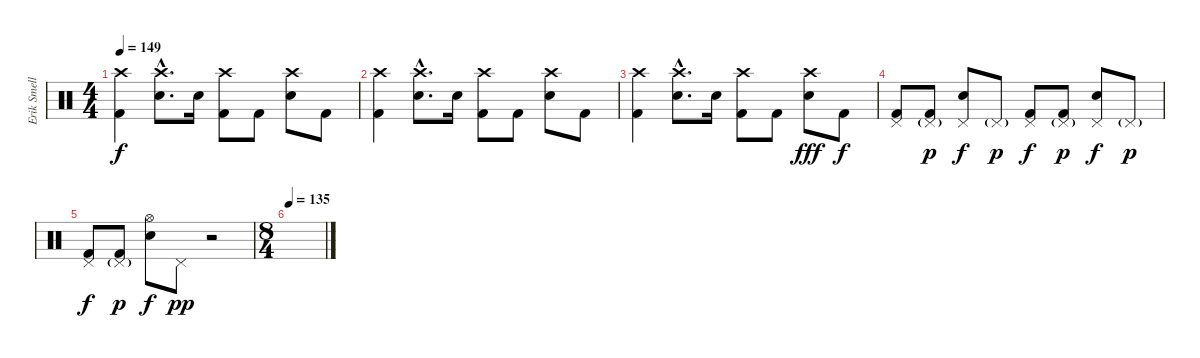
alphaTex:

\track ("Erik Smelly - Drums" "Erik Smell") {instrument percussion}
\staff {score}
\articulation defaults
\ts (4 4)
\tempo 149
\clef neutral
\ks c
("Crash high (hit)" "Kick (hit) 2").4{dy f} ("Crash high (hit)"{hac} "Electric Snare (hit)"{hac}).8{d} "Electric Snare (hit)".16 ("Crash high (hit)" "Kick (hit) 2").8 "Kick (hit) 2".8 ("Crash high (hit)" "Electric Snare (hit)").8 "Kick (hit) 2".8 |
("Crash high (hit)" "Kick (hit) 2").4 ("Crash high (hit)"{hac} "Electric Snare (hit)"{hac}).8{d} "Electric Snare (hit)".16 ("Crash high (hit)" "Kick (hit) 2").8 "Kick (hit) 2".8 ("Crash high (hit)" "Electric Snare (hit)").8 "Kick (hit) 2".8 |
("Crash high (hit)" "Kick (hit) 2").4 ("Crash high (hit)"{hac} "Electric Snare (hit)"{hac}).8{d} "Electric Snare (hit)".16 ("Crash high (hit)" "Kick (hit) 2").8 "Kick (hit) 2".8 ("Crash high (hit)" "Electric Snare (hit)").8{dy fff} "Kick (hit) 2".8{dy f} |
("Pedal Hi-Hat (hit)" "Kick (hit) 2").8 ("Pedal Hi-Hat (hit)"{g} "Kick (hit) 2").8{dy p} ("Pedal Hi-Hat (hit)" "Electric Snare (hit)").8{dy f} "Pedal Hi-Hat (hit)"{g}.8{dy p} ("Pedal Hi-Hat (hit)" "Kick (hit) 2").8{dy f} ("Pedal Hi-Hat (hit)"{g} "Kick (hit) 2").8{dy p} ("Pedal Hi-Hat (hit)" "Electric Snare (hit)").8{dy f} "Pedal Hi-Hat (hit)"{g}.8{dy p} |
("Pedal Hi-Hat (hit)" "Kick (hit) 2").8{dy f} ("Pedal Hi-Hat (hit)"{g} "Kick (hit) 2").8{dy p} ("Hi-Hat (open)" "Electric Snare (hit)").8{dy f} "Pedal Hi-Hat (hit)".8{dy pp} r.2 |
\ts (8 4)
\tempo 135
